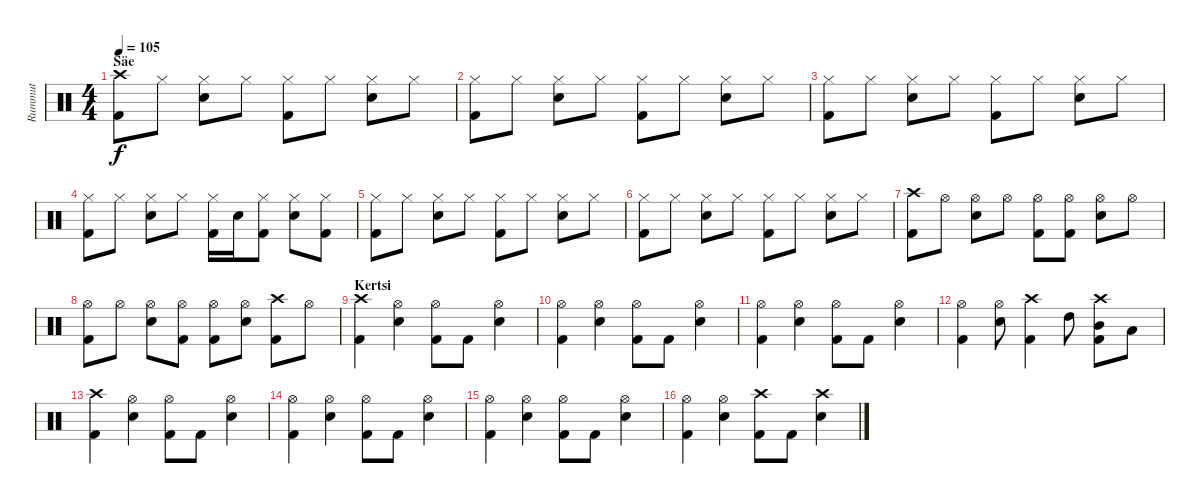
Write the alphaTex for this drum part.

\track ("Rummut" "Rummut") {instrument percussion}
\staff {score}
\articulation defaults
\ts (4 4)
\section ("" "Säe")
\tempo 105
\clef neutral
\ks c
("Crash high (hit)" "Kick (hit) 2").8{dy f} "Hi-Hat (closed)".8 ("Hi-Hat (closed)" "Snare (hit) 2").8 "Hi-Hat (closed)".8 ("Hi-Hat (closed)" "Kick (hit) 2").8 "Hi-Hat (closed)".8 ("Hi-Hat (closed)" "Snare (hit) 2").8 "Hi-Hat (closed)".8 |
("Hi-Hat (closed)" "Kick (hit) 2").8 "Hi-Hat (closed)".8 ("Hi-Hat (closed)" "Snare (hit) 2").8 "Hi-Hat (closed)".8 ("Hi-Hat (closed)" "Kick (hit) 2").8 "Hi-Hat (closed)".8 ("Hi-Hat (closed)" "Snare (hit) 2").8 "Hi-Hat (closed)".8 |
("Hi-Hat (closed)" "Kick (hit) 2").8 "Hi-Hat (closed)".8 ("Hi-Hat (closed)" "Snare (hit) 2").8 "Hi-Hat (closed)".8 ("Hi-Hat (closed)" "Kick (hit) 2").8 "Hi-Hat (closed)".8 ("Hi-Hat (closed)" "Snare (hit) 2").8 "Hi-Hat (closed)".8 |
("Hi-Hat (closed)" "Kick (hit) 2").8 "Hi-Hat (closed)".8 ("Hi-Hat (closed)" "Snare (hit) 2").8 "Hi-Hat (closed)".8 ("Hi-Hat (closed)" "Kick (hit) 2").16 "Snare (hit) 2".16 ("Hi-Hat (closed)" "Kick (hit) 2").8 ("Hi-Hat (closed)" "Snare (hit) 2").8 ("Hi-Hat (closed)" "Kick (hit) 2").8 |
("Hi-Hat (closed)" "Kick (hit) 2").8 "Hi-Hat (closed)".8 ("Hi-Hat (closed)" "Snare (hit) 2").8 "Hi-Hat (closed)".8 ("Hi-Hat (closed)" "Kick (hit) 2").8 "Hi-Hat (closed)".8 ("Hi-Hat (closed)" "Snare (hit) 2").8 "Hi-Hat (closed)".8 |
("Hi-Hat (closed)" "Kick (hit) 2").8 "Hi-Hat (closed)".8 ("Hi-Hat (closed)" "Snare (hit) 2").8 "Hi-Hat (closed)".8 ("Hi-Hat (closed)" "Kick (hit) 2").8 "Hi-Hat (closed)".8 ("Hi-Hat (closed)" "Snare (hit) 2").8 "Hi-Hat (closed)".8 |
("Crash high (hit)" "Kick (hit) 2").8 "Hi-Hat (open)".8 ("Hi-Hat (open)" "Snare (hit) 2").8 "Hi-Hat (open)".8 ("Hi-Hat (open)" "Kick (hit) 2").8 ("Hi-Hat (open)" "Kick (hit) 2").8 ("Hi-Hat (open)" "Snare (hit) 2").8 "Hi-Hat (open)".8 |
("Hi-Hat (open)" "Kick (hit) 2").8 "Hi-Hat (open)".8 ("Hi-Hat (open)" "Snare (hit) 2").8 ("Hi-Hat (open)" "Kick (hit) 2").8 ("Hi-Hat (open)" "Kick (hit) 2").8 ("Hi-Hat (open)" "Snare (hit) 2").8 ("Crash high (hit)" "Kick (hit) 2").8 "Hi-Hat (open)".8 |
\section ("" "Kertsi")
("Crash high (hit)" "Kick (hit) 2").4 ("Hi-Hat (open)" "Snare (hit) 2").4 ("Hi-Hat (open)" "Kick (hit) 2").8 "Kick (hit) 2".8 ("Hi-Hat (open)" "Snare (hit) 2").4 |
("Hi-Hat (open)" "Kick (hit) 2").4 ("Hi-Hat (open)" "Snare (hit) 2").4 ("Hi-Hat (open)" "Kick (hit) 2").8 "Kick (hit) 2".8 ("Hi-Hat (open)" "Snare (hit) 2").4 |
("Hi-Hat (open)" "Kick (hit) 2").4 ("Hi-Hat (open)" "Snare (hit) 2").4 ("Hi-Hat (open)" "Kick (hit) 2").8 "Kick (hit) 2".8 ("Hi-Hat (open)" "Snare (hit) 2").4 |
("Hi-Hat (open)" "Kick (hit) 2").4 ("Hi-Hat (open)" "Snare (hit) 2").8 ("Crash high (hit)" "Kick (hit) 2").4 "High Tom (hit)".8 ("Crash high (hit)" "Mid Tom (hit)" "Kick (hit) 2").8 "Low Tom (hit)".8 |
("Crash high (hit)" "Kick (hit) 2").4 ("Hi-Hat (open)" "Snare (hit) 2").4 ("Hi-Hat (open)" "Kick (hit) 2").8 "Kick (hit) 2".8 ("Hi-Hat (open)" "Snare (hit) 2").4 |
("Hi-Hat (open)" "Kick (hit) 2").4 ("Hi-Hat (open)" "Snare (hit) 2").4 ("Hi-Hat (open)" "Kick (hit) 2").8 "Kick (hit) 2".8 ("Hi-Hat (open)" "Snare (hit) 2").4 |
("Hi-Hat (open)" "Kick (hit) 2").4 ("Hi-Hat (open)" "Snare (hit) 2").4 ("Hi-Hat (open)" "Kick (hit) 2").8 "Kick (hit) 2".8 ("Hi-Hat (open)" "Snare (hit) 2").4 |
("Hi-Hat (open)" "Kick (hit) 2").4 ("Hi-Hat (open)" "Snare (hit) 2").4 ("Crash high (hit)" "Kick (hit) 2").8 "Kick (hit) 2".8 ("Crash high (hit)" "Snare (hit) 2").4
